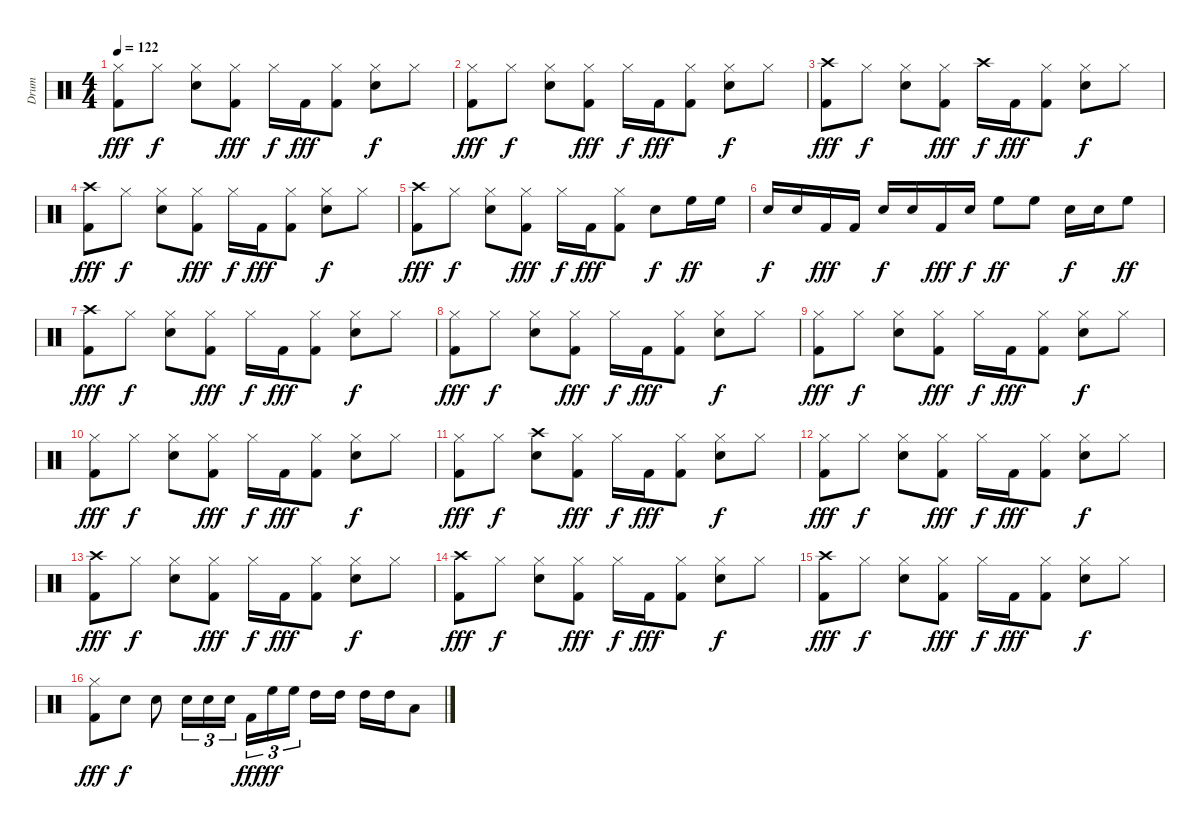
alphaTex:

\track ("Drum" "Drum") {instrument percussion}
\staff {score}
\articulation defaults
\ts (4 4)
\tempo 122
\clef neutral
\ks c
("Hi-Hat (closed)" "Kick (hit) 2").8{dy fff} "Hi-Hat (closed)".8{dy f} ("Hi-Hat (closed)" "Snare (hit) 2").8 ("Hi-Hat (closed)" "Kick (hit) 2").8{dy fff} "Hi-Hat (closed)".16{dy f} "Kick (hit) 2".16{dy fff} ("Hi-Hat (closed)" "Kick (hit) 2").8 ("Hi-Hat (closed)" "Snare (hit) 2").8{dy f} "Hi-Hat (closed)".8 |
("Hi-Hat (closed)" "Kick (hit) 2").8{dy fff} "Hi-Hat (closed)".8{dy f} ("Hi-Hat (closed)" "Snare (hit) 2").8 ("Hi-Hat (closed)" "Kick (hit) 2").8{dy fff} "Hi-Hat (closed)".16{dy f} "Kick (hit) 2".16{dy fff} ("Hi-Hat (closed)" "Kick (hit) 2").8 ("Hi-Hat (closed)" "Snare (hit) 2").8{dy f} "Hi-Hat (closed)".8 |
("Crash high (hit)" "Kick (hit) 2").8{dy fff} "Hi-Hat (closed)".8{dy f} ("Hi-Hat (closed)" "Snare (hit) 2").8 ("Hi-Hat (closed)" "Kick (hit) 2").8{dy fff} "Crash high (hit)".16{dy f} "Kick (hit) 2".16{dy fff} ("Hi-Hat (closed)" "Kick (hit) 2").8 ("Hi-Hat (closed)" "Snare (hit) 2").8{dy f} "Hi-Hat (closed)".8 |
("Crash high (hit)" "Kick (hit) 2").8{dy fff} "Hi-Hat (closed)".8{dy f} ("Hi-Hat (closed)" "Snare (hit) 2").8 ("Hi-Hat (closed)" "Kick (hit) 2").8{dy fff} "Hi-Hat (closed)".16{dy f} "Kick (hit) 2".16{dy fff} ("Hi-Hat (closed)" "Kick (hit) 2").8 ("Hi-Hat (closed)" "Snare (hit) 2").8{dy f} "Hi-Hat (closed)".8 |
("Crash high (hit)" "Kick (hit) 2").8{dy fff} "Hi-Hat (closed)".8{dy f} ("Hi-Hat (closed)" "Snare (hit) 2").8 ("Hi-Hat (closed)" "Kick (hit) 2").8{dy fff} "Hi-Hat (closed)".16{dy f} "Kick (hit) 2".16{dy fff} ("Hi-Hat (closed)" "Kick (hit) 2").8 "Snare (hit) 2".8{dy f} "High Floor Tom (hit)".16{dy ff} "High Floor Tom (hit)".16 |
"Snare (hit) 2".16{dy f} "Snare (hit) 2".16 "Kick (hit) 2".16{dy fff} "Kick (hit) 2".16 "Snare (hit) 2".16{dy f} "Snare (hit) 2".16 "Kick (hit) 2".16{dy fff} "Snare (hit) 2".16{dy f} "High Floor Tom (hit)".8{dy ff} "High Floor Tom (hit)".8 "Snare (hit) 2".16{dy f} "Snare (hit) 2".16 "High Floor Tom (hit)".8{dy ff} |
("Crash high (hit)" "Kick (hit) 2").8{dy fff} "Hi-Hat (closed)".8{dy f} ("Hi-Hat (closed)" "Snare (hit) 2").8 ("Hi-Hat (closed)" "Kick (hit) 2").8{dy fff} "Hi-Hat (closed)".16{dy f} "Kick (hit) 2".16{dy fff} ("Hi-Hat (closed)" "Kick (hit) 2").8 ("Hi-Hat (closed)" "Snare (hit) 2").8{dy f} "Hi-Hat (closed)".8 |
("Hi-Hat (closed)" "Kick (hit) 2").8{dy fff} "Hi-Hat (closed)".8{dy f} ("Hi-Hat (closed)" "Snare (hit) 2").8 ("Hi-Hat (closed)" "Kick (hit) 2").8{dy fff} "Hi-Hat (closed)".16{dy f} "Kick (hit) 2".16{dy fff} ("Hi-Hat (closed)" "Kick (hit) 2").8 ("Hi-Hat (closed)" "Snare (hit) 2").8{dy f} "Hi-Hat (closed)".8 |
("Hi-Hat (closed)" "Kick (hit) 2").8{dy fff} "Hi-Hat (closed)".8{dy f} ("Hi-Hat (closed)" "Snare (hit) 2").8 ("Hi-Hat (closed)" "Kick (hit) 2").8{dy fff} "Hi-Hat (closed)".16{dy f} "Kick (hit) 2".16{dy fff} ("Hi-Hat (closed)" "Kick (hit) 2").8 ("Hi-Hat (closed)" "Snare (hit) 2").8{dy f} "Hi-Hat (closed)".8 |
("Hi-Hat (closed)" "Kick (hit) 2").8{dy fff} "Hi-Hat (closed)".8{dy f} ("Hi-Hat (closed)" "Snare (hit) 2").8 ("Hi-Hat (closed)" "Kick (hit) 2").8{dy fff} "Hi-Hat (closed)".16{dy f} "Kick (hit) 2".16{dy fff} ("Hi-Hat (closed)" "Kick (hit) 2").8 ("Hi-Hat (closed)" "Snare (hit) 2").8{dy f} "Hi-Hat (closed)".8 |
("Hi-Hat (closed)" "Kick (hit) 2").8{dy fff} "Hi-Hat (closed)".8{dy f} ("Crash high (hit)" "Snare (hit) 2").8 ("Hi-Hat (closed)" "Kick (hit) 2").8{dy fff} "Hi-Hat (closed)".16{dy f} "Kick (hit) 2".16{dy fff} ("Hi-Hat (closed)" "Kick (hit) 2").8 ("Hi-Hat (closed)" "Snare (hit) 2").8{dy f} "Hi-Hat (closed)".8 |
("Hi-Hat (closed)" "Kick (hit) 2").8{dy fff} "Hi-Hat (closed)".8{dy f} ("Hi-Hat (closed)" "Snare (hit) 2").8 ("Hi-Hat (closed)" "Kick (hit) 2").8{dy fff} "Hi-Hat (closed)".16{dy f} "Kick (hit) 2".16{dy fff} ("Hi-Hat (closed)" "Kick (hit) 2").8 ("Hi-Hat (closed)" "Snare (hit) 2").8{dy f} "Hi-Hat (closed)".8 |
("Crash high (hit)" "Kick (hit) 2").8{dy fff} "Hi-Hat (closed)".8{dy f} ("Hi-Hat (closed)" "Snare (hit) 2").8 ("Hi-Hat (closed)" "Kick (hit) 2").8{dy fff} "Hi-Hat (closed)".16{dy f} "Kick (hit) 2".16{dy fff} ("Hi-Hat (closed)" "Kick (hit) 2").8 ("Hi-Hat (closed)" "Snare (hit) 2").8{dy f} "Hi-Hat (closed)".8 |
("Crash high (hit)" "Kick (hit) 2").8{dy fff} "Hi-Hat (closed)".8{dy f} ("Hi-Hat (closed)" "Snare (hit) 2").8 ("Hi-Hat (closed)" "Kick (hit) 2").8{dy fff} "Hi-Hat (closed)".16{dy f} "Kick (hit) 2".16{dy fff} ("Hi-Hat (closed)" "Kick (hit) 2").8 ("Hi-Hat (closed)" "Snare (hit) 2").8{dy f} "Hi-Hat (closed)".8 |
("Crash high (hit)" "Kick (hit) 2").8{dy fff} "Hi-Hat (closed)".8{dy f} ("Hi-Hat (closed)" "Snare (hit) 2").8 ("Hi-Hat (closed)" "Kick (hit) 2").8{dy fff} "Hi-Hat (closed)".16{dy f} "Kick (hit) 2".16{dy fff} ("Hi-Hat (closed)" "Kick (hit) 2").8 ("Hi-Hat (closed)" "Snare (hit) 2").8{dy f} "Hi-Hat (closed)".8 |
("Hi-Hat (closed)" "Kick (hit) 2").8{dy fff} "Snare (hit) 2".8{dy f} "Snare (hit) 2".8 "Snare (hit) 2".16{tu (3 2)} "Snare (hit) 2".16{tu (3 2)} "Snare (hit) 2".16{tu (3 2)} "Kick (hit) 2".16{tu (3 2) dy fff} "High Floor Tom (hit)".16{tu (3 2) dy ff} "High Floor Tom (hit)".16{tu (3 2)} "High Tom (hit)".16 "High Tom (hit)".16 "High Tom (hit)".16 "High Tom (hit)".16 "Low Tom (hit)".8
